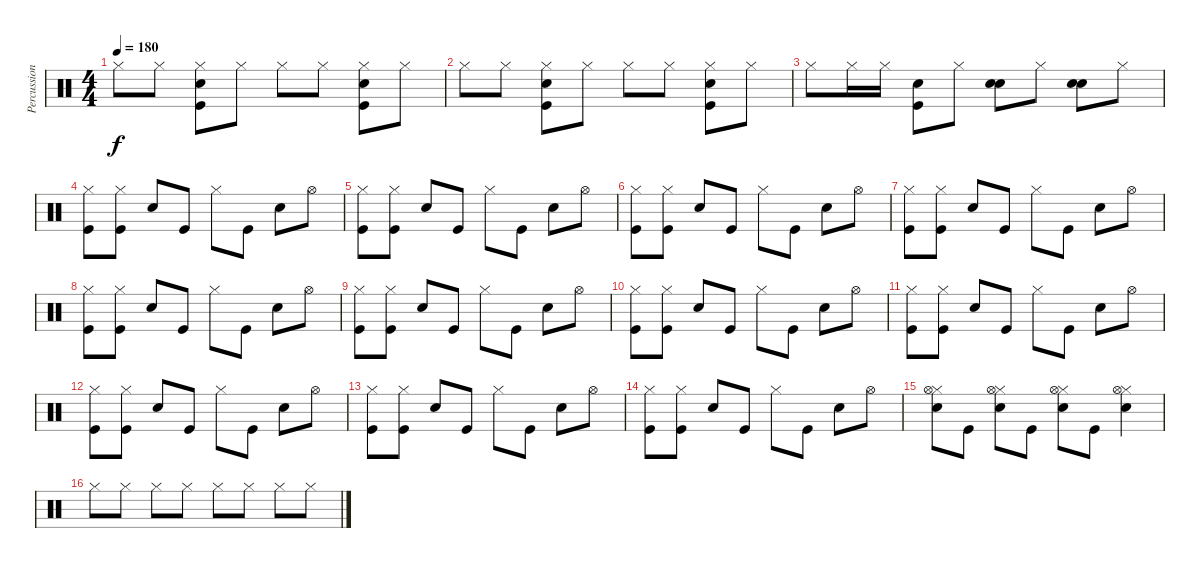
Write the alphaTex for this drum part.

\track ("Percussions" "Percussion") {instrument percussion}
\staff {score}
\articulation defaults
\ts (4 4)
\tempo 180
\clef neutral
\ks c "Hi-Hat (closed)".8{dy f} "Hi-Hat (closed)".8
("Hi-Hat (closed)" "Electric Snare (hit)" "Kick (hit)").8 "Hi-Hat (closed)".8 "Hi-Hat (closed)".8 "Hi-Hat (closed)".8 ("Hi-Hat (closed)" "Electric Snare (hit)" "Kick (hit)").8 "Hi-Hat (closed)".8 |
"Hi-Hat (closed)".8 "Hi-Hat (closed)".8 ("Hi-Hat (closed)" "Electric Snare (hit)" "Kick (hit)").8 "Hi-Hat (closed)".8 "Hi-Hat (closed)".8 "Hi-Hat (closed)".8 ("Hi-Hat (closed)" "Electric Snare (hit)" "Kick (hit)").8 "Hi-Hat (closed)".8 |
"Hi-Hat (closed)".8 "Hi-Hat (closed)".16 "Hi-Hat (closed)".16 ("Electric Snare (hit)" "Kick (hit)").8 "Hi-Hat (closed)".8 ("Electric Snare (hit)" "Snare (hit) 2").8 "Hi-Hat (closed)".8 ("Snare (hit) 2" "Electric Snare (hit)").8 "Hi-Hat (closed)".8 |
("Hi-Hat (closed)" "Kick (hit)").8 ("Hi-Hat (closed)" "Kick (hit)").8 "Electric Snare (hit)".8 "Kick (hit)".8 "Hi-Hat (closed)".8 "Kick (hit)".8 "Electric Snare (hit)".8 "Hi-Hat (open)".8 |
("Hi-Hat (closed)" "Kick (hit)").8 ("Hi-Hat (closed)" "Kick (hit)").8 "Electric Snare (hit)".8 "Kick (hit)".8 "Hi-Hat (closed)".8 "Kick (hit)".8 "Electric Snare (hit)".8 "Hi-Hat (open)".8 |
("Hi-Hat (closed)" "Kick (hit)").8 ("Hi-Hat (closed)" "Kick (hit)").8 "Electric Snare (hit)".8 "Kick (hit)".8 "Hi-Hat (closed)".8 "Kick (hit)".8 "Electric Snare (hit)".8 "Hi-Hat (open)".8 |
("Hi-Hat (closed)" "Kick (hit)").8 ("Hi-Hat (closed)" "Kick (hit)").8 "Electric Snare (hit)".8 "Kick (hit)".8 "Hi-Hat (closed)".8 "Kick (hit)".8 "Electric Snare (hit)".8 "Hi-Hat (open)".8 |
("Hi-Hat (closed)" "Kick (hit)").8 ("Hi-Hat (closed)" "Kick (hit)").8 "Electric Snare (hit)".8 "Kick (hit)".8 "Hi-Hat (closed)".8 "Kick (hit)".8 "Electric Snare (hit)".8 "Hi-Hat (open)".8 |
("Hi-Hat (closed)" "Kick (hit)").8 ("Hi-Hat (closed)" "Kick (hit)").8 "Electric Snare (hit)".8 "Kick (hit)".8 "Hi-Hat (closed)".8 "Kick (hit)".8 "Electric Snare (hit)".8 "Hi-Hat (open)".8 |
("Hi-Hat (closed)" "Kick (hit)").8 ("Hi-Hat (closed)" "Kick (hit)").8 "Electric Snare (hit)".8 "Kick (hit)".8 "Hi-Hat (closed)".8 "Kick (hit)".8 "Electric Snare (hit)".8 "Hi-Hat (open)".8 |
("Hi-Hat (closed)" "Kick (hit)").8 ("Hi-Hat (closed)" "Kick (hit)").8 "Electric Snare (hit)".8 "Kick (hit)".8 "Hi-Hat (closed)".8 "Kick (hit)".8 "Electric Snare (hit)".8 "Hi-Hat (open)".8 |
("Hi-Hat (closed)" "Kick (hit)").8 ("Hi-Hat (closed)" "Kick (hit)").8 "Electric Snare (hit)".8 "Kick (hit)".8 "Hi-Hat (closed)".8 "Kick (hit)".8 "Electric Snare (hit)".8 "Hi-Hat (open)".8 |
("Hi-Hat (closed)" "Kick (hit)").8 ("Hi-Hat (closed)" "Kick (hit)").8 "Electric Snare (hit)".8 "Kick (hit)".8 "Hi-Hat (closed)".8 "Kick (hit)".8 "Electric Snare (hit)".8 "Hi-Hat (open)".8 |
("Hi-Hat (closed)" "Kick (hit)").8 ("Hi-Hat (closed)" "Kick (hit)").8 "Electric Snare (hit)".8 "Kick (hit)".8 "Hi-Hat (closed)".8 "Kick (hit)".8 "Electric Snare (hit)".8 "Hi-Hat (open)".8 |
("Electric Snare (hit)" "Hi-Hat (closed)" "Hi-Hat (open)").8 "Kick (hit)".8 ("Electric Snare (hit)" "Hi-Hat (closed)" "Hi-Hat (open)").8 "Kick (hit)".8 ("Electric Snare (hit)" "Hi-Hat (closed)" "Hi-Hat (open)").8 "Kick (hit)".8 ("Electric Snare (hit)" "Hi-Hat (closed)" "Hi-Hat (open)").4 |
"Hi-Hat (closed)".8 "Hi-Hat (closed)".8 "Hi-Hat (closed)".8 "Hi-Hat (closed)".8 "Hi-Hat (closed)".8 "Hi-Hat (closed)".8 "Hi-Hat (closed)".8 "Hi-Hat (closed)".8
